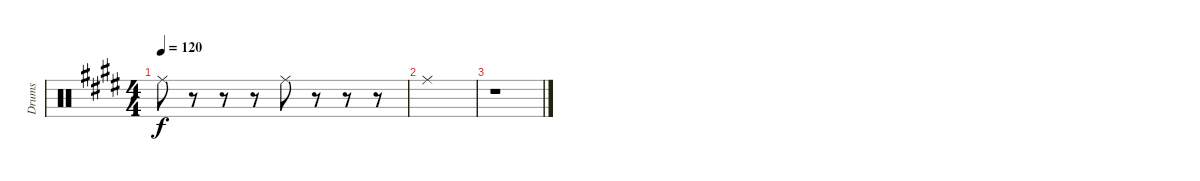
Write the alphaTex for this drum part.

\track ("Drums" "Drums") {instrument percussion}
\staff {score}
\articulation defaults
\ts (4 4)
\tempo 120
\clef neutral
\ks e "Ride (middle)".8{dy f}
r.8 r.8 r.8 "Ride (middle)".8 r.8 r.8 r.8 |
"Ride (middle)".1 |
r.1
